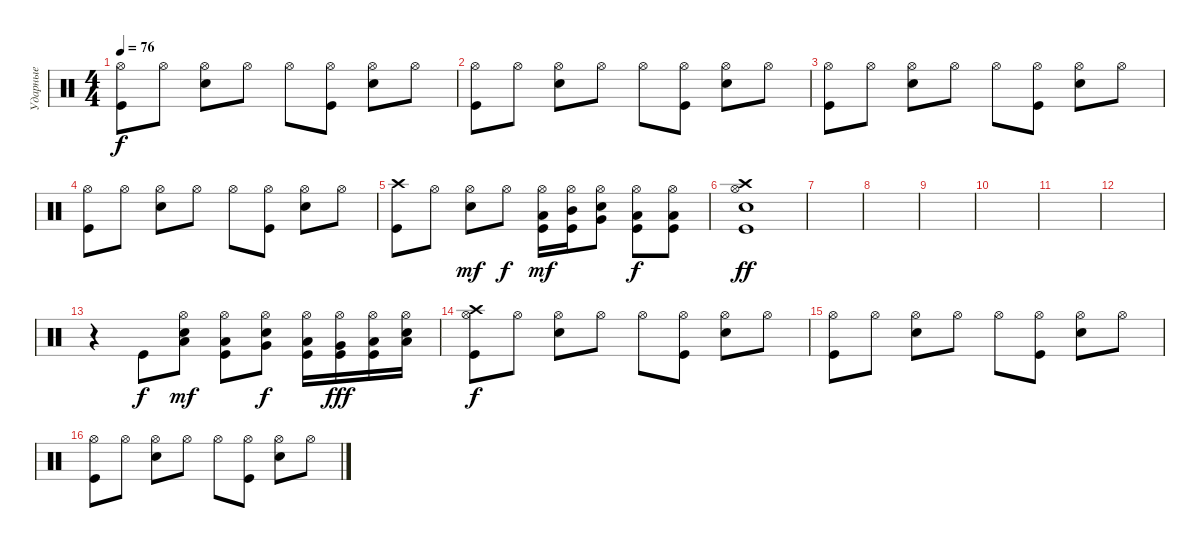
\track ("Ударные" "Ударные") {instrument percussion}
\staff {score}
\articulation defaults
\ts (4 4)
\tempo 76
\clef neutral
\ks c
("Hi-Hat (open)" "Kick (hit)").8{dy f} "Hi-Hat (open)".8 ("Hi-Hat (open)" "Electric Snare (hit)").8 "Hi-Hat (open)".8 "Hi-Hat (open)".8 ("Hi-Hat (open)" "Kick (hit)").8 ("Hi-Hat (open)" "Electric Snare (hit)").8 "Hi-Hat (open)".8 |
("Hi-Hat (open)" "Kick (hit)").8 "Hi-Hat (open)".8 ("Hi-Hat (open)" "Electric Snare (hit)").8 "Hi-Hat (open)".8 "Hi-Hat (open)".8 ("Hi-Hat (open)" "Kick (hit)").8 ("Hi-Hat (open)" "Electric Snare (hit)").8 "Hi-Hat (open)".8 |
("Hi-Hat (open)" "Kick (hit)").8 "Hi-Hat (open)".8 ("Hi-Hat (open)" "Electric Snare (hit)").8 "Hi-Hat (open)".8 "Hi-Hat (open)".8 ("Hi-Hat (open)" "Kick (hit)").8 ("Hi-Hat (open)" "Electric Snare (hit)").8 "Hi-Hat (open)".8 |
("Hi-Hat (open)" "Kick (hit)").8 "Hi-Hat (open)".8 ("Hi-Hat (open)" "Electric Snare (hit)").8 "Hi-Hat (open)".8 "Hi-Hat (open)".8 ("Hi-Hat (open)" "Kick (hit)").8 ("Hi-Hat (open)" "Electric Snare (hit)").8 "Hi-Hat (open)".8 |
("Kick (hit)" "Crash high (hit)").8 "Hi-Hat (open)".8 ("Electric Snare (hit)" "Hi-Hat (open)").8{dy mf} "Hi-Hat (open)".8{dy f} ("Kick (hit)" "Hi-Hat (open)" "Low Tom (hit)").16{dy mf} ("Kick (hit)" "Hi-Hat (open)" "Mid Tom (hit)").16 ("Electric Snare (hit)" "Hi-Hat (open)" "Very Low Tom (hit)").8 ("Kick (hit)" "Hi-Hat (open)" "Low Floor Tom (hit)").8{dy f} ("Kick (hit)" "Hi-Hat (open)" "Low Floor Tom (hit)").8 |
("Snare (hit) 2" "Hi-Hat (open)" "Crash high (hit)" "Kick (hit)").1{dy ff} |
|
|
|
|
|
|
r.4 "Kick (hit)".8{dy f} ("Electric Snare (hit)" "Hi-Hat (open)" "Low Tom (hit)").8{dy mf} ("Kick (hit)" "Hi-Hat (open)" "Low Tom (hit)").8 ("Electric Snare (hit)" "Hi-Hat (open)" "Very Low Tom (hit)").8{dy f} ("Kick (hit)" "Hi-Hat (open)" "Low Floor Tom (hit)").16 ("Kick (hit)" "Hi-Hat (open)" "Very Low Tom (hit)").16{dy fff} ("Kick (hit)" "Hi-Hat (open)" "Low Floor Tom (hit)").16 ("Electric Snare (hit)" "Hi-Hat (open)" "Low Tom (hit)").16 |
("Hi-Hat (open)" "Crash high (hit)" "Kick (hit)").8{dy f} "Hi-Hat (open)".8 ("Hi-Hat (open)" "Electric Snare (hit)").8 "Hi-Hat (open)".8 "Hi-Hat (open)".8 ("Hi-Hat (open)" "Kick (hit)").8 ("Hi-Hat (open)" "Electric Snare (hit)").8 "Hi-Hat (open)".8 |
("Hi-Hat (open)" "Kick (hit)").8 "Hi-Hat (open)".8 ("Hi-Hat (open)" "Electric Snare (hit)").8 "Hi-Hat (open)".8 "Hi-Hat (open)".8 ("Hi-Hat (open)" "Kick (hit)").8 ("Hi-Hat (open)" "Electric Snare (hit)").8 "Hi-Hat (open)".8 |
("Hi-Hat (open)" "Kick (hit)").8 "Hi-Hat (open)".8 ("Hi-Hat (open)" "Electric Snare (hit)").8 "Hi-Hat (open)".8 "Hi-Hat (open)".8 ("Hi-Hat (open)" "Kick (hit)").8 ("Hi-Hat (open)" "Electric Snare (hit)").8 "Hi-Hat (open)".8
